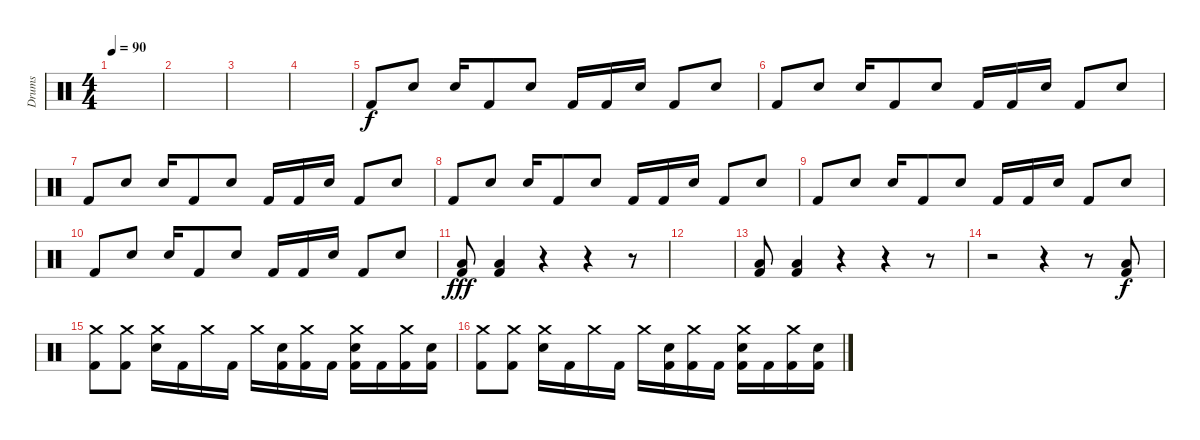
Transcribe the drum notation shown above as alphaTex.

\track ("Drums" "Drums") {instrument percussion}
\staff {score}
\articulation defaults
\ts (4 4)
\tempo 90
\clef neutral
\ks c
|
|
|
|
"Kick (hit) 2".8 "Snare (hit) 2".8 "Snare (hit) 2".16 "Kick (hit) 2".8 "Snare (hit) 2".8 "Kick (hit) 2".16 "Kick (hit) 2".16 "Snare (hit) 2".16 "Kick (hit) 2".8 "Snare (hit) 2".8 |
"Kick (hit) 2".8 "Snare (hit) 2".8 "Snare (hit) 2".16 "Kick (hit) 2".8 "Snare (hit) 2".8 "Kick (hit) 2".16 "Kick (hit) 2".16 "Snare (hit) 2".16 "Kick (hit) 2".8 "Snare (hit) 2".8 |
"Kick (hit) 2".8 "Snare (hit) 2".8 "Snare (hit) 2".16 "Kick (hit) 2".8 "Snare (hit) 2".8 "Kick (hit) 2".16 "Kick (hit) 2".16 "Snare (hit) 2".16 "Kick (hit) 2".8 "Snare (hit) 2".8 |
"Kick (hit) 2".8 "Snare (hit) 2".8 "Snare (hit) 2".16 "Kick (hit) 2".8 "Snare (hit) 2".8 "Kick (hit) 2".16 "Kick (hit) 2".16 "Snare (hit) 2".16 "Kick (hit) 2".8 "Snare (hit) 2".8 |
"Kick (hit) 2".8 "Snare (hit) 2".8 "Snare (hit) 2".16 "Kick (hit) 2".8 "Snare (hit) 2".8 "Kick (hit) 2".16 "Kick (hit) 2".16 "Snare (hit) 2".16 "Kick (hit) 2".8 "Snare (hit) 2".8 |
"Kick (hit) 2".8 "Snare (hit) 2".8 "Snare (hit) 2".16 "Kick (hit) 2".8 "Snare (hit) 2".8 "Kick (hit) 2".16 "Kick (hit) 2".16 "Snare (hit) 2".16 "Kick (hit) 2".8 "Snare (hit) 2".8 |
("Low Tom (hit)" "Kick (hit) 2").8{dy fff} ("Low Tom (hit)" "Kick (hit) 2").4 r.4 r.4 r.8 |
|
("Low Tom (hit)" "Kick (hit) 2").8 ("Low Tom (hit)" "Kick (hit) 2").4 r.4 r.4 r.8 |
r.2 r.4 r.8 ("Low Tom (hit)" "Kick (hit) 2").8{dy f} |
("Crash medium (hit)" "Kick (hit) 2").8 ("Crash medium (hit)" "Kick (hit) 2").8 ("Crash medium (hit)" "Snare (hit) 2").16 "Kick (hit) 2".16 "Crash medium (hit)".16 "Kick (hit) 2".16 "Crash medium (hit)".16 ("Snare (hit) 2" "Kick (hit) 2").16 ("Crash medium (hit)" "Kick (hit) 2").16 "Kick (hit) 2".16 ("Crash medium (hit)" "Snare (hit) 2" "Kick (hit) 2").16 "Kick (hit) 2".16 ("Crash medium (hit)" "Kick (hit) 2").16 ("Snare (hit) 2" "Kick (hit) 2").16 |
("Crash medium (hit)" "Kick (hit) 2").8 ("Crash medium (hit)" "Kick (hit) 2").8 ("Crash medium (hit)" "Snare (hit) 2").16 "Kick (hit) 2".16 "Crash medium (hit)".16 "Kick (hit) 2".16 "Crash medium (hit)".16 ("Snare (hit) 2" "Kick (hit) 2").16 ("Crash medium (hit)" "Kick (hit) 2").16 "Kick (hit) 2".16 ("Crash medium (hit)" "Snare (hit) 2" "Kick (hit) 2").16 "Kick (hit) 2".16 ("Crash medium (hit)" "Kick (hit) 2").16 ("Snare (hit) 2" "Kick (hit) 2").16
